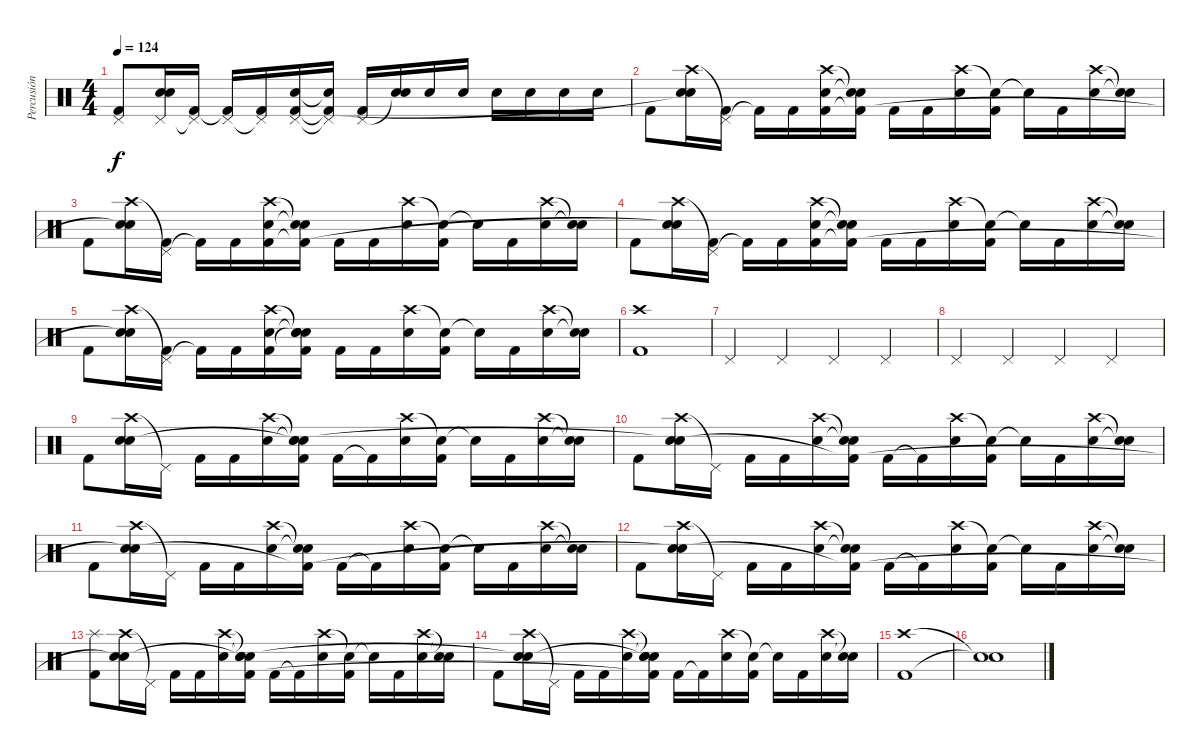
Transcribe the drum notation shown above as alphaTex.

\track ("Percusión" "Percusión") {instrument percussion}
\staff {score}
\articulation defaults
\ts (4 4)
\tempo 124
\clef neutral
\ks c
("Pedal Hi-Hat (hit)" "Kick (hit) 2").8{dy f} ("Pedal Hi-Hat (hit)" "Snare (hit) 2" "Snare (hit)"{t}).16 ("Pedal Hi-Hat (hit)"{t} "Kick (hit) 2").16 ("Pedal Hi-Hat (hit)" "Kick (hit) 2"{t}).16 ("Pedal Hi-Hat (hit)"{t} "Kick (hit) 2").16 ("Pedal Hi-Hat (hit)" "Snare (hit) 2" "Kick (hit) 2").16 ("Pedal Hi-Hat (hit)"{t} "Snare (hit)"{t} "Kick (hit) 2"{t}).16 ("Pedal Hi-Hat (hit)" "Kick (hit) 2").16 ("Snare (hit)"{t} "Snare (hit) 2").16 "Snare (hit) 2".16 "Snare (hit) 2".16 "Snare (hit) 2".16 "Snare (hit) 2".16 "Snare (hit) 2".16 "Snare (hit) 2".16 |
"Kick (hit) 2".8 ("Crash high (hit)" "Snare (hit) 2" "Snare (hit)"{t}).16 ("Pedal Hi-Hat (hit)"{t} "Kick (hit) 2").16 "Kick (hit) 2"{t}.16 "Kick (hit) 2".16 ("Crash high (hit)" "Snare (hit) 2" "Kick (hit) 2").16 ("Snare (hit)"{t} "Snare (hit)"{t} "Kick (hit) 2"{t}).16 "Kick (hit) 2".16 "Kick (hit) 2".16 ("Crash high (hit)" "Snare (hit) 2").16 ("Snare (hit)"{t} "Kick (hit) 2").16 "Snare (hit)"{t}.16 "Kick (hit) 2".16 ("Crash high (hit)" "Snare (hit) 2").16 ("Snare (hit)"{t} "Snare (hit)"{t}).16 |
"Kick (hit) 2".8 ("Crash high (hit)" "Snare (hit) 2" "Snare (hit)"{t}).16 ("Pedal Hi-Hat (hit)"{t} "Kick (hit) 2").16 "Kick (hit) 2"{t}.16 "Kick (hit) 2".16 ("Crash high (hit)" "Snare (hit) 2" "Kick (hit) 2").16 ("Snare (hit)"{t} "Snare (hit)"{t} "Kick (hit) 2"{t}).16 "Kick (hit) 2".16 "Kick (hit) 2".16 ("Crash high (hit)" "Snare (hit) 2").16 ("Snare (hit)"{t} "Kick (hit) 2").16 "Snare (hit)"{t}.16 "Kick (hit) 2".16 ("Crash high (hit)" "Snare (hit) 2").16 ("Snare (hit)"{t} "Snare (hit)"{t}).16 |
"Kick (hit) 2".8 ("Crash high (hit)" "Snare (hit) 2" "Snare (hit)"{t}).16 ("Pedal Hi-Hat (hit)"{t} "Kick (hit) 2").16 "Kick (hit) 2"{t}.16 "Kick (hit) 2".16 ("Crash high (hit)" "Snare (hit) 2" "Kick (hit) 2").16 ("Snare (hit)"{t} "Snare (hit)"{t} "Kick (hit) 2"{t}).16 "Kick (hit) 2".16 "Kick (hit) 2".16 ("Crash high (hit)" "Snare (hit) 2").16 ("Snare (hit)"{t} "Kick (hit) 2").16 "Snare (hit)"{t}.16 "Kick (hit) 2".16 ("Crash high (hit)" "Snare (hit) 2").16 ("Snare (hit)"{t} "Snare (hit)"{t}).16 |
"Kick (hit) 2".8 ("Crash high (hit)" "Snare (hit) 2" "Snare (hit)"{t}).16 ("Pedal Hi-Hat (hit)"{t} "Kick (hit) 2").16 "Kick (hit) 2"{t}.16 "Kick (hit) 2".16 ("Crash high (hit)" "Snare (hit) 2" "Kick (hit) 2").16 ("Snare (hit)"{t} "Snare (hit)"{t} "Snare (hit)"{t} "Kick (hit) 2").16 "Kick (hit) 2".16 "Kick (hit) 2".16 ("Crash high (hit)" "Snare (hit) 2").16 ("Snare (hit)"{t} "Kick (hit) 2").16 "Snare (hit)"{t}.16 "Kick (hit) 2".16 ("Crash high (hit)" "Snare (hit) 2").16 ("Snare (hit)"{t} "Snare (hit)"{t}).16 |
("Crash high (hit)" "Kick (hit) 2").1 |
"Pedal Hi-Hat (hit)".4 "Pedal Hi-Hat (hit)".4 "Pedal Hi-Hat (hit)".4 "Pedal Hi-Hat (hit)".4 |
"Pedal Hi-Hat (hit)".4 "Pedal Hi-Hat (hit)".4 "Pedal Hi-Hat (hit)".4 "Pedal Hi-Hat (hit)".4 |
"Kick (hit) 2".8 ("Crash high (hit)" "Snare (hit) 2" "Snare (hit)").16 "Pedal Hi-Hat (hit)"{t}.16 "Kick (hit) 2".16 "Kick (hit) 2".16 ("Crash high (hit)" "Snare (hit) 2").16 ("Snare (hit)"{t} "Snare (hit)"{t} "Snare (hit)"{t} "Kick (hit) 2").16 "Kick (hit) 2".16 "Kick (hit) 2"{t}.16 ("Crash high (hit)" "Snare (hit) 2").16 ("Snare (hit)"{t} "Kick (hit) 2").16 "Snare (hit)"{t}.16 "Kick (hit) 2".16 ("Crash high (hit)" "Snare (hit) 2").16 ("Snare (hit)"{t} "Snare (hit)"{t}).16 |
"Kick (hit) 2".8 ("Crash high (hit)" "Snare (hit) 2" "Snare (hit)"{t}).16 "Pedal Hi-Hat (hit)"{t}.16 "Kick (hit) 2".16 "Kick (hit) 2".16 ("Crash high (hit)" "Snare (hit) 2").16 ("Snare (hit)"{t} "Snare (hit)"{t} "Kick (hit) 2"{t}).16 "Kick (hit) 2".16 "Kick (hit) 2"{t}.16 ("Crash high (hit)" "Snare (hit) 2").16 ("Snare (hit)"{t} "Kick (hit) 2").16 "Snare (hit)"{t}.16 "Kick (hit) 2".16 ("Crash high (hit)" "Snare (hit) 2").16 ("Snare (hit)"{t} "Snare (hit)"{t}).16 |
"Kick (hit) 2".8 ("Crash high (hit)" "Snare (hit) 2" "Snare (hit)"{t}).16 "Pedal Hi-Hat (hit)"{t}.16 "Kick (hit) 2".16 "Kick (hit) 2".16 ("Crash high (hit)" "Snare (hit) 2").16 ("Snare (hit)"{t} "Snare (hit)"{t} "Kick (hit) 2"{t}).16 "Kick (hit) 2".16 "Kick (hit) 2"{t}.16 ("Crash high (hit)" "Snare (hit) 2").16 ("Snare (hit)"{t} "Kick (hit) 2").16 "Snare (hit)"{t}.16 "Kick (hit) 2".16 ("Crash high (hit)" "Snare (hit) 2").16 ("Snare (hit)"{t} "Snare (hit)"{t}).16 |
"Kick (hit) 2".8 ("Crash high (hit)" "Snare (hit) 2" "Snare (hit)"{t}).16 "Pedal Hi-Hat (hit)"{t}.16 "Kick (hit) 2".16 "Kick (hit) 2".16 ("Crash high (hit)" "Snare (hit) 2").16 ("Snare (hit)"{t} "Snare (hit)"{t} "Kick (hit) 2"{t}).16 "Kick (hit) 2".16 "Kick (hit) 2"{t}.16 ("Crash high (hit)" "Snare (hit) 2").16 ("Snare (hit)"{t} "Kick (hit) 2").16 "Snare (hit)"{t}.16 "Kick (hit) 2".16 ("Crash high (hit)" "Snare (hit) 2").16 ("Snare (hit)"{t} "Snare (hit)"{t}).16 |
("Splash (hit)" "Kick (hit) 2").8 ("Crash high (hit)" "Snare (hit) 2" "Snare (hit)"{t}).16 "Pedal Hi-Hat (hit)"{t}.16 "Kick (hit) 2".16 "Kick (hit) 2".16 ("Crash high (hit)" "Snare (hit) 2").16 ("Snare (hit)"{t} "Snare (hit)"{t} "Snare (hit)"{t} "Kick (hit) 2").16 "Kick (hit) 2".16 "Kick (hit) 2"{t}.16 ("Crash high (hit)" "Snare (hit) 2").16 ("Snare (hit)"{t} "Kick (hit) 2").16 "Snare (hit)"{t}.16 "Kick (hit) 2".16 ("Crash high (hit)" "Snare (hit) 2").16 ("Snare (hit)"{t} "Snare (hit)"{t}).16 |
"Kick (hit) 2".8 ("Crash high (hit)" "Snare (hit) 2" "Snare (hit)"{t}).16 "Pedal Hi-Hat (hit)"{t}.16 "Kick (hit) 2".16 "Kick (hit) 2".16 ("Crash high (hit)" "Snare (hit) 2").16 ("Snare (hit)"{t} "Snare (hit)"{t} "Snare (hit)"{t} "Kick (hit) 2"{t}).16 "Kick (hit) 2".16 "Kick (hit) 2"{t}.16 ("Crash high (hit)" "Snare (hit) 2").16 ("Snare (hit)"{t} "Kick (hit) 2").16 "Snare (hit)"{t}.16 "Kick (hit) 2".16 ("Crash high (hit)" "Snare (hit) 2").16 ("Snare (hit)"{t} "Snare (hit)"{t}).16 |
("Crash high (hit)" "Kick (hit) 2").1 |
("Snare (hit)"{t} "Snare (hit)"{t}).1
